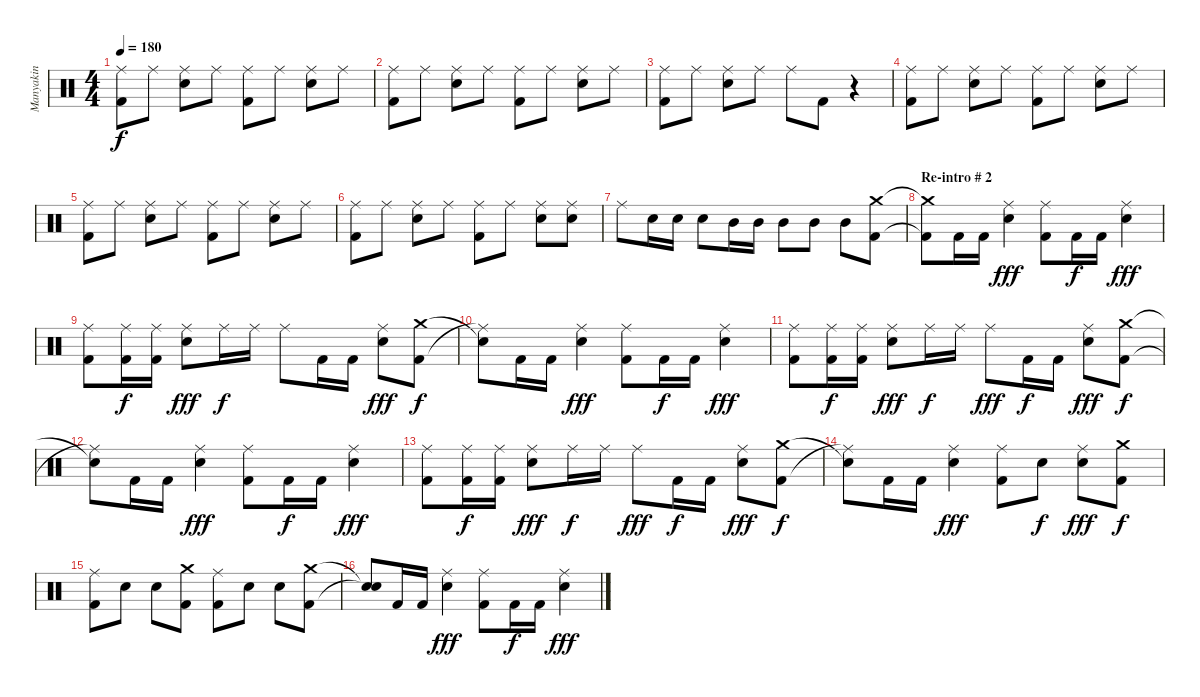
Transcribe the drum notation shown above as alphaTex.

\track ("Manyakin" "Manyakin") {instrument percussion}
\staff {score}
\articulation defaults
\ts (4 4)
\tempo 180
\clef neutral
\ks c
("Kick (hit) 2" "Ride (middle)").8{dy f} "Ride (middle)".8 ("Snare (hit) 2" "Ride (middle)").8 "Ride (middle)".8 ("Kick (hit) 2" "Ride (middle)").8 "Ride (middle)".8 ("Snare (hit) 2" "Ride (middle)").8 "Ride (middle)".8 |
("Kick (hit) 2" "Ride (middle)").8 "Ride (middle)".8 ("Snare (hit) 2" "Ride (middle)").8 "Ride (middle)".8 ("Kick (hit) 2" "Ride (middle)").8 "Ride (middle)".8 ("Snare (hit) 2" "Ride (middle)").8 "Ride (middle)".8 |
("Kick (hit) 2" "Ride (middle)").8 "Ride (middle)".8 ("Snare (hit) 2" "Ride (middle)").8 "Ride (middle)".8 "Ride (middle)".8 "Kick (hit) 2".8 r.4 |
("Kick (hit) 2" "Ride (middle)").8 "Ride (middle)".8 ("Snare (hit) 2" "Ride (middle)").8 "Ride (middle)".8 ("Kick (hit) 2" "Ride (middle)").8 "Ride (middle)".8 ("Snare (hit) 2" "Ride (middle)").8 "Ride (middle)".8 |
("Kick (hit) 2" "Ride (middle)").8 "Ride (middle)".8 ("Snare (hit) 2" "Ride (middle)").8 "Ride (middle)".8 ("Kick (hit) 2" "Ride (middle)").8 "Ride (middle)".8 ("Snare (hit) 2" "Ride (middle)").8 "Ride (middle)".8 |
("Kick (hit) 2" "Ride (middle)").8 "Ride (middle)".8 ("Snare (hit) 2" "Ride (middle)").8 "Ride (middle)".8 ("Kick (hit) 2" "Ride (middle)").8 "Ride (middle)".8 ("Snare (hit) 2" "Ride (middle)").8 ("Snare (hit) 2" "Ride (middle)").8 |
"Ride (middle)".8 "Snare (hit) 2".16 "Snare (hit) 2".16 "Snare (hit) 2".8 "Mid Tom (hit)".16 "Mid Tom (hit)".16 "Mid Tom (hit)".8 "Mid Tom (hit)".8 "Mid Tom (hit)".8 ("Kick (hit) 2" "Crash medium (hit)").8 |
\section ("" "Re-intro # 2")
("Kick (hit) 2"{t} "Crash medium (hit)"{t}).8 "Kick (hit) 2".16 "Kick (hit) 2".16 ("Snare (hit) 2" "Ride (middle)").4{dy fff} ("Kick (hit) 2" "Ride (middle)").8 "Kick (hit) 2".16{dy f} "Kick (hit) 2".16 ("Snare (hit) 2" "Ride (middle)").4{dy fff} |
("Kick (hit) 2" "Ride (middle)").8 ("Kick (hit) 2" "Ride (middle)").16{dy f} ("Kick (hit) 2" "Ride (middle)").16 ("Snare (hit) 2" "Ride (middle)").8{dy fff} "Ride (middle)".16{dy f} "Ride (middle)".16 "Ride (middle)".8 "Kick (hit) 2".16 "Kick (hit) 2".16 ("Snare (hit) 2" "Ride (middle)").8{dy fff} ("Kick (hit) 2" "Crash medium (hit)").8{dy f} |
("Ride (middle)"{t} "Snare (hit)"{t}).8 "Kick (hit) 2".16 "Kick (hit) 2".16 ("Snare (hit) 2" "Ride (middle)").4{dy fff} ("Kick (hit) 2" "Ride (middle)").8 "Kick (hit) 2".16{dy f} "Kick (hit) 2".16 ("Snare (hit) 2" "Ride (middle)").4{dy fff} |
("Kick (hit) 2" "Ride (middle)").8 ("Kick (hit) 2" "Ride (middle)").16{dy f} ("Kick (hit) 2" "Ride (middle)").16 ("Snare (hit) 2" "Ride (middle)").8{dy fff} "Ride (middle)".16{dy f} "Ride (middle)".16 "Ride (middle)".8{dy fff} "Kick (hit) 2".16{dy f} "Kick (hit) 2".16 ("Snare (hit) 2" "Ride (middle)").8{dy fff} ("Kick (hit) 2" "Crash medium (hit)").8{dy f} |
("Ride (middle)"{t} "Snare (hit)"{t}).8 "Kick (hit) 2".16 "Kick (hit) 2".16 ("Snare (hit) 2" "Ride (middle)").4{dy fff} ("Kick (hit) 2" "Ride (middle)").8 "Kick (hit) 2".16{dy f} "Kick (hit) 2".16 ("Snare (hit) 2" "Ride (middle)").4{dy fff} |
("Kick (hit) 2" "Ride (middle)").8 ("Kick (hit) 2" "Ride (middle)").16{dy f} ("Kick (hit) 2" "Ride (middle)").16 ("Snare (hit) 2" "Ride (middle)").8{dy fff} "Ride (middle)".16{dy f} "Ride (middle)".16 "Ride (middle)".8{dy fff} "Kick (hit) 2".16{dy f} "Kick (hit) 2".16 ("Snare (hit) 2" "Ride (middle)").8{dy fff} ("Kick (hit) 2" "Crash medium (hit)").8{dy f} |
("Ride (middle)"{t} "Snare (hit)"{t}).8 "Kick (hit) 2".16 "Kick (hit) 2".16 ("Snare (hit) 2" "Ride (middle)").4{dy fff} ("Kick (hit) 2" "Ride (middle)").8 "Snare (hit) 2".8{dy f} ("Snare (hit) 2" "Ride (middle)").8{dy fff} ("Kick (hit) 2" "Crash medium (hit)").8{dy f} |
("Ride (middle)" "Kick (hit) 2").8 "Snare (hit) 2".8 "Snare (hit) 2".8 ("Kick (hit) 2" "Crash medium (hit)").8 ("Ride (middle)" "Kick (hit) 2").8 "Snare (hit) 2".8 "Snare (hit) 2".8 ("Kick (hit) 2" "Crash medium (hit)").8 |
("Snare (hit)"{t} "Snare (hit)"{t}).8 "Kick (hit) 2".16 "Kick (hit) 2".16 ("Snare (hit) 2" "Ride (middle)").4{dy fff} ("Kick (hit) 2" "Ride (middle)").8 "Kick (hit) 2".16{dy f} "Kick (hit) 2".16 ("Snare (hit) 2" "Ride (middle)").4{dy fff}
